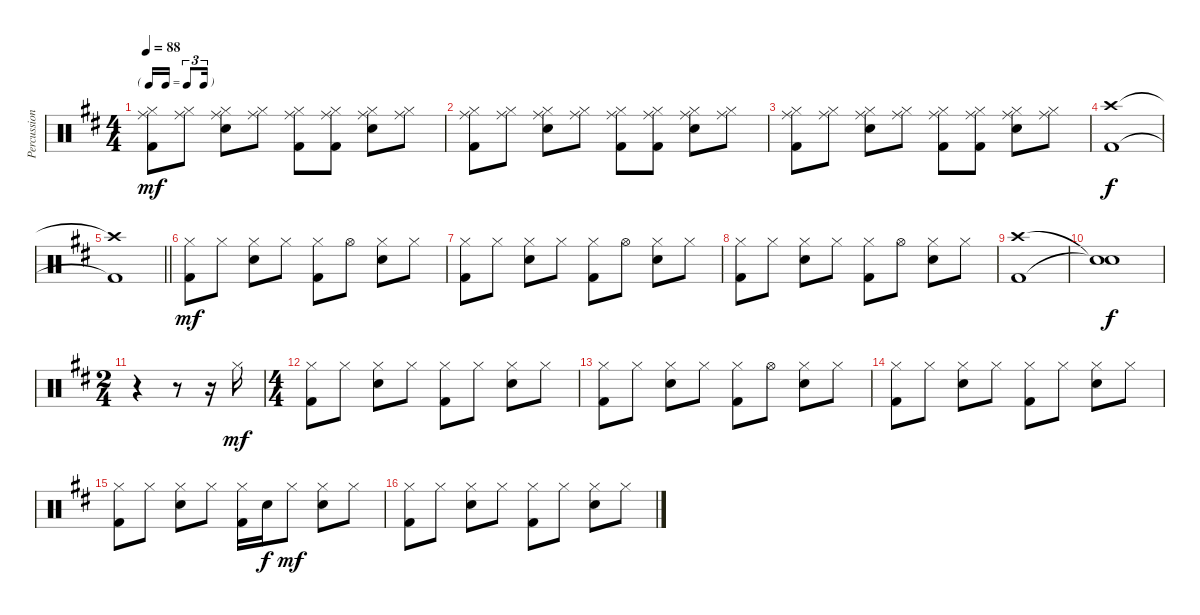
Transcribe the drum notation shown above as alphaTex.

\track ("Percussion" "Percussion") {instrument percussion}
\staff {score}
\articulation defaults
\ts (4 4)
\tf triplet16th
\tempo 88
\clef neutral
\ks d
("Ride (middle)" "Hi-Hat (closed)" "Kick (hit) 2").8{dy mf} ("Ride (middle)" "Hi-Hat (closed)").8 ("Ride (middle)" "Hi-Hat (closed)" "Snare (hit) 2").8 ("Ride (middle)" "Hi-Hat (closed)").8 ("Ride (middle)" "Hi-Hat (closed)" "Kick (hit) 2").8 ("Ride (middle)" "Hi-Hat (closed)" "Kick (hit) 2").8 ("Ride (middle)" "Hi-Hat (closed)" "Snare (hit) 2").8 ("Ride (middle)" "Hi-Hat (closed)").8 |
("Ride (middle)" "Hi-Hat (closed)" "Kick (hit) 2").8 ("Ride (middle)" "Hi-Hat (closed)").8 ("Ride (middle)" "Hi-Hat (closed)" "Snare (hit) 2").8 ("Ride (middle)" "Hi-Hat (closed)").8 ("Ride (middle)" "Hi-Hat (closed)" "Kick (hit) 2").8 ("Ride (middle)" "Hi-Hat (closed)" "Kick (hit) 2").8 ("Ride (middle)" "Hi-Hat (closed)" "Snare (hit) 2").8 ("Ride (middle)" "Hi-Hat (closed)").8 |
("Ride (middle)" "Hi-Hat (closed)" "Kick (hit) 2").8 ("Ride (middle)" "Hi-Hat (closed)").8 ("Ride (middle)" "Hi-Hat (closed)" "Snare (hit) 2").8 ("Ride (middle)" "Hi-Hat (closed)").8 ("Ride (middle)" "Hi-Hat (closed)" "Kick (hit) 2").8 ("Ride (middle)" "Hi-Hat (closed)" "Kick (hit) 2").8 ("Ride (middle)" "Hi-Hat (closed)" "Snare (hit) 2").8 ("Ride (middle)" "Hi-Hat (closed)").8 |
("Crash high (hit)" "Kick (hit) 2").1{dy f} |
\barLineRight lightlight
("Crash high (hit)"{t} "Kick (hit) 2"{t}).1 |
("Hi-Hat (closed)" "Kick (hit) 2").8{dy mf} "Hi-Hat (closed)".8 ("Hi-Hat (closed)" "Snare (hit) 2").8 "Hi-Hat (closed)".8 ("Hi-Hat (closed)" "Kick (hit) 2").8 "Hi-Hat (open)".8 ("Hi-Hat (closed)" "Snare (hit) 2").8 "Hi-Hat (closed)".8 |
("Hi-Hat (closed)" "Kick (hit) 2").8 "Hi-Hat (closed)".8 ("Hi-Hat (closed)" "Snare (hit) 2").8 "Hi-Hat (closed)".8 ("Hi-Hat (closed)" "Kick (hit) 2").8 "Hi-Hat (open)".8 ("Hi-Hat (closed)" "Snare (hit) 2").8 "Hi-Hat (closed)".8 |
("Hi-Hat (closed)" "Kick (hit) 2").8 "Hi-Hat (closed)".8 ("Hi-Hat (closed)" "Snare (hit) 2").8 "Hi-Hat (closed)".8 ("Hi-Hat (closed)" "Kick (hit) 2").8 "Hi-Hat (open)".8 ("Hi-Hat (closed)" "Snare (hit) 2").8 "Hi-Hat (closed)".8 |
("Crash high (hit)" "Kick (hit) 2").1 |
("Snare (hit)"{t} "Snare (hit)"{t}).1{dy f} |
\ts (2 4)
r.4 r.8 r.16 "Hi-Hat (closed)".16{dy mf} |
\ts (4 4)
("Hi-Hat (closed)" "Kick (hit) 2").8 "Hi-Hat (closed)".8 ("Hi-Hat (closed)" "Snare (hit) 2").8 "Hi-Hat (closed)".8 ("Hi-Hat (closed)" "Kick (hit) 2").8 "Hi-Hat (closed)".8 ("Hi-Hat (closed)" "Snare (hit) 2").8 "Hi-Hat (closed)".8 |
("Hi-Hat (closed)" "Kick (hit) 2").8 "Hi-Hat (closed)".8 ("Hi-Hat (closed)" "Snare (hit) 2").8 "Hi-Hat (closed)".8 ("Hi-Hat (closed)" "Kick (hit) 2").8 "Hi-Hat (open)".8 ("Hi-Hat (closed)" "Snare (hit) 2").8 "Hi-Hat (closed)".8 |
("Hi-Hat (closed)" "Kick (hit) 2").8 "Hi-Hat (closed)".8 ("Hi-Hat (closed)" "Snare (hit) 2").8 "Hi-Hat (closed)".8 ("Hi-Hat (closed)" "Kick (hit) 2").8 "Hi-Hat (closed)".8 ("Hi-Hat (closed)" "Snare (hit) 2").8 "Hi-Hat (closed)".8 |
("Hi-Hat (closed)" "Kick (hit) 2").8 "Hi-Hat (closed)".8 ("Hi-Hat (closed)" "Snare (hit) 2").8 "Hi-Hat (closed)".8 ("Hi-Hat (closed)" "Kick (hit) 2").16 "Snare (hit) 2".16{dy f} "Hi-Hat (closed)".8{dy mf} ("Hi-Hat (closed)" "Snare (hit) 2").8 "Hi-Hat (closed)".8 |
("Hi-Hat (closed)" "Kick (hit) 2").8 "Hi-Hat (closed)".8 ("Hi-Hat (closed)" "Snare (hit) 2").8 "Hi-Hat (closed)".8 ("Hi-Hat (closed)" "Kick (hit) 2").8 "Hi-Hat (closed)".8 ("Hi-Hat (closed)" "Snare (hit) 2").8 "Hi-Hat (closed)".8
